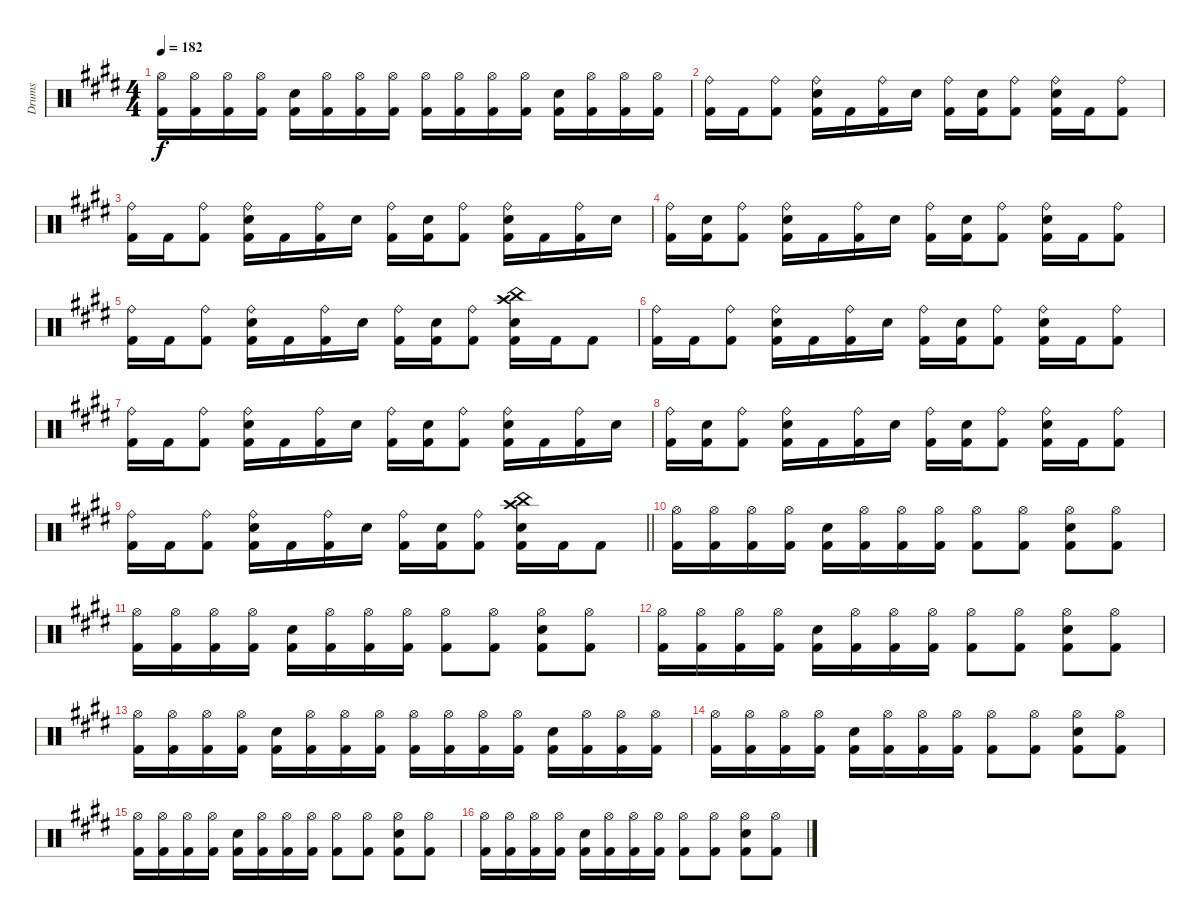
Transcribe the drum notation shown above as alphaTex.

\track ("Drums" "Drums") {instrument percussion}
\staff {score}
\articulation defaults
\ts (4 4)
\tempo 182
\clef neutral
\ks c#minor
("Hi-Hat (open)" "Kick (hit) 2").16{dy f} ("Hi-Hat (open)" "Kick (hit) 2").16 ("Hi-Hat (open)" "Kick (hit) 2").16 ("Hi-Hat (open)" "Kick (hit) 2").16 ("Snare (hit) 2" "Kick (hit) 2").16 ("Hi-Hat (open)" "Kick (hit) 2").16 ("Hi-Hat (open)" "Kick (hit) 2").16 ("Hi-Hat (open)" "Kick (hit) 2").16 ("Hi-Hat (open)" "Kick (hit) 2").16 ("Hi-Hat (open)" "Kick (hit) 2").16 ("Hi-Hat (open)" "Kick (hit) 2").16 ("Hi-Hat (open)" "Kick (hit) 2").16 ("Snare (hit) 2" "Kick (hit) 2").16 ("Hi-Hat (open)" "Kick (hit) 2").16 ("Hi-Hat (open)" "Kick (hit) 2").16 ("Hi-Hat (open)" "Kick (hit) 2").16 |
("Ride (bell)" "Kick (hit) 2").16 "Kick (hit) 2".16 ("Ride (bell)" "Kick (hit) 2").8 ("Ride (bell)" "Snare (hit) 2" "Kick (hit) 2").16 "Kick (hit) 2".16 ("Ride (bell)" "Kick (hit) 2").16 "Snare (hit) 2".16 ("Ride (bell)" "Kick (hit) 2").16 ("Snare (hit) 2" "Kick (hit) 2").16 ("Ride (bell)" "Kick (hit) 2").8 ("Ride (bell)" "Snare (hit) 2" "Kick (hit) 2").16 "Kick (hit) 2".16 ("Ride (bell)" "Kick (hit) 2").8 |
("Ride (bell)" "Kick (hit) 2").16 "Kick (hit) 2".16 ("Ride (bell)" "Kick (hit) 2").8 ("Ride (bell)" "Snare (hit) 2" "Kick (hit) 2").16 "Kick (hit) 2".16 ("Ride (bell)" "Kick (hit) 2").16 "Snare (hit) 2".16 ("Ride (bell)" "Kick (hit) 2").16 ("Snare (hit) 2" "Kick (hit) 2").16 ("Ride (bell)" "Kick (hit) 2").8 ("Ride (bell)" "Snare (hit) 2" "Kick (hit) 2").16 "Kick (hit) 2".16 ("Ride (bell)" "Kick (hit) 2").16 "Snare (hit) 2".16 |
("Ride (bell)" "Kick (hit) 2").16 ("Snare (hit) 2" "Kick (hit) 2").16 ("Ride (bell)" "Kick (hit) 2").8 ("Ride (bell)" "Snare (hit) 2" "Kick (hit) 2").16 "Kick (hit) 2".16 ("Ride (bell)" "Kick (hit) 2").16 "Snare (hit) 2".16 ("Ride (bell)" "Kick (hit) 2").16 ("Snare (hit) 2" "Kick (hit) 2").16 ("Ride (bell)" "Kick (hit) 2").8 ("Ride (bell)" "Snare (hit) 2" "Kick (hit) 2").16 "Kick (hit) 2".16 ("Ride (bell)" "Kick (hit) 2").8 |
("Ride (bell)" "Kick (hit) 2").16 "Kick (hit) 2".16 ("Ride (bell)" "Kick (hit) 2").8 ("Ride (bell)" "Snare (hit) 2" "Kick (hit) 2").16 "Kick (hit) 2".16 ("Ride (bell)" "Kick (hit) 2").16 "Snare (hit) 2".16 ("Ride (bell)" "Kick (hit) 2").16 ("Snare (hit) 2" "Kick (hit) 2").16 ("Ride (bell)" "Kick (hit) 2").8 ("Crash high (hit)" "China (hit)" "Snare (hit) 2" "Kick (hit) 2").16 "Kick (hit) 2".16 "Kick (hit) 2".8 |
("Ride (bell)" "Kick (hit) 2").16 "Kick (hit) 2".16 ("Ride (bell)" "Kick (hit) 2").8 ("Ride (bell)" "Snare (hit) 2" "Kick (hit) 2").16 "Kick (hit) 2".16 ("Ride (bell)" "Kick (hit) 2").16 "Snare (hit) 2".16 ("Ride (bell)" "Kick (hit) 2").16 ("Snare (hit) 2" "Kick (hit) 2").16 ("Ride (bell)" "Kick (hit) 2").8 ("Ride (bell)" "Snare (hit) 2" "Kick (hit) 2").16 "Kick (hit) 2".16 ("Ride (bell)" "Kick (hit) 2").8 |
("Ride (bell)" "Kick (hit) 2").16 "Kick (hit) 2".16 ("Ride (bell)" "Kick (hit) 2").8 ("Ride (bell)" "Snare (hit) 2" "Kick (hit) 2").16 "Kick (hit) 2".16 ("Ride (bell)" "Kick (hit) 2").16 "Snare (hit) 2".16 ("Ride (bell)" "Kick (hit) 2").16 ("Snare (hit) 2" "Kick (hit) 2").16 ("Ride (bell)" "Kick (hit) 2").8 ("Ride (bell)" "Snare (hit) 2" "Kick (hit) 2").16 "Kick (hit) 2".16 ("Ride (bell)" "Kick (hit) 2").16 "Snare (hit) 2".16 |
("Ride (bell)" "Kick (hit) 2").16 ("Snare (hit) 2" "Kick (hit) 2").16 ("Ride (bell)" "Kick (hit) 2").8 ("Ride (bell)" "Snare (hit) 2" "Kick (hit) 2").16 "Kick (hit) 2".16 ("Ride (bell)" "Kick (hit) 2").16 "Snare (hit) 2".16 ("Ride (bell)" "Kick (hit) 2").16 ("Snare (hit) 2" "Kick (hit) 2").16 ("Ride (bell)" "Kick (hit) 2").8 ("Ride (bell)" "Snare (hit) 2" "Kick (hit) 2").16 "Kick (hit) 2".16 ("Ride (bell)" "Kick (hit) 2").8 |
\barLineRight lightlight
("Ride (bell)" "Kick (hit) 2").16 "Kick (hit) 2".16 ("Ride (bell)" "Kick (hit) 2").8 ("Ride (bell)" "Snare (hit) 2" "Kick (hit) 2").16 "Kick (hit) 2".16 ("Ride (bell)" "Kick (hit) 2").16 "Snare (hit) 2".16 ("Ride (bell)" "Kick (hit) 2").16 ("Snare (hit) 2" "Kick (hit) 2").16 ("Ride (bell)" "Kick (hit) 2").8 ("Crash high (hit)" "China (hit)" "Snare (hit) 2" "Kick (hit) 2").16 "Kick (hit) 2".16 "Kick (hit) 2".8 |
("Hi-Hat (open)" "Kick (hit) 2").16 ("Hi-Hat (open)" "Kick (hit) 2").16 ("Hi-Hat (open)" "Kick (hit) 2").16 ("Hi-Hat (open)" "Kick (hit) 2").16 ("Snare (hit) 2" "Kick (hit) 2").16 ("Hi-Hat (open)" "Kick (hit) 2").16 ("Hi-Hat (open)" "Kick (hit) 2").16 ("Hi-Hat (open)" "Kick (hit) 2").16 ("Hi-Hat (open)" "Kick (hit) 2").8 ("Hi-Hat (open)" "Kick (hit) 2").8 ("Hi-Hat (open)" "Snare (hit) 2" "Kick (hit) 2").8 ("Hi-Hat (open)" "Kick (hit) 2").8 |
("Hi-Hat (open)" "Kick (hit) 2").16 ("Hi-Hat (open)" "Kick (hit) 2").16 ("Hi-Hat (open)" "Kick (hit) 2").16 ("Hi-Hat (open)" "Kick (hit) 2").16 ("Snare (hit) 2" "Kick (hit) 2").16 ("Hi-Hat (open)" "Kick (hit) 2").16 ("Hi-Hat (open)" "Kick (hit) 2").16 ("Hi-Hat (open)" "Kick (hit) 2").16 ("Hi-Hat (open)" "Kick (hit) 2").8 ("Hi-Hat (open)" "Kick (hit) 2").8 ("Hi-Hat (open)" "Snare (hit) 2" "Kick (hit) 2").8 ("Hi-Hat (open)" "Kick (hit) 2").8 |
("Hi-Hat (open)" "Kick (hit) 2").16 ("Hi-Hat (open)" "Kick (hit) 2").16 ("Hi-Hat (open)" "Kick (hit) 2").16 ("Hi-Hat (open)" "Kick (hit) 2").16 ("Snare (hit) 2" "Kick (hit) 2").16 ("Hi-Hat (open)" "Kick (hit) 2").16 ("Hi-Hat (open)" "Kick (hit) 2").16 ("Hi-Hat (open)" "Kick (hit) 2").16 ("Hi-Hat (open)" "Kick (hit) 2").8 ("Hi-Hat (open)" "Kick (hit) 2").8 ("Hi-Hat (open)" "Snare (hit) 2" "Kick (hit) 2").8 ("Hi-Hat (open)" "Kick (hit) 2").8 |
("Hi-Hat (open)" "Kick (hit) 2").16 ("Hi-Hat (open)" "Kick (hit) 2").16 ("Hi-Hat (open)" "Kick (hit) 2").16 ("Hi-Hat (open)" "Kick (hit) 2").16 ("Snare (hit) 2" "Kick (hit) 2").16 ("Hi-Hat (open)" "Kick (hit) 2").16 ("Hi-Hat (open)" "Kick (hit) 2").16 ("Hi-Hat (open)" "Kick (hit) 2").16 ("Hi-Hat (open)" "Kick (hit) 2").16 ("Hi-Hat (open)" "Kick (hit) 2").16 ("Hi-Hat (open)" "Kick (hit) 2").16 ("Hi-Hat (open)" "Kick (hit) 2").16 ("Snare (hit) 2" "Kick (hit) 2").16 ("Hi-Hat (open)" "Kick (hit) 2").16 ("Hi-Hat (open)" "Kick (hit) 2").16 ("Hi-Hat (open)" "Kick (hit) 2").16 |
("Hi-Hat (open)" "Kick (hit) 2").16 ("Hi-Hat (open)" "Kick (hit) 2").16 ("Hi-Hat (open)" "Kick (hit) 2").16 ("Hi-Hat (open)" "Kick (hit) 2").16 ("Snare (hit) 2" "Kick (hit) 2").16 ("Hi-Hat (open)" "Kick (hit) 2").16 ("Hi-Hat (open)" "Kick (hit) 2").16 ("Hi-Hat (open)" "Kick (hit) 2").16 ("Hi-Hat (open)" "Kick (hit) 2").8 ("Hi-Hat (open)" "Kick (hit) 2").8 ("Hi-Hat (open)" "Snare (hit) 2" "Kick (hit) 2").8 ("Hi-Hat (open)" "Kick (hit) 2").8 |
("Hi-Hat (open)" "Kick (hit) 2").16 ("Hi-Hat (open)" "Kick (hit) 2").16 ("Hi-Hat (open)" "Kick (hit) 2").16 ("Hi-Hat (open)" "Kick (hit) 2").16 ("Snare (hit) 2" "Kick (hit) 2").16 ("Hi-Hat (open)" "Kick (hit) 2").16 ("Hi-Hat (open)" "Kick (hit) 2").16 ("Hi-Hat (open)" "Kick (hit) 2").16 ("Hi-Hat (open)" "Kick (hit) 2").8 ("Hi-Hat (open)" "Kick (hit) 2").8 ("Hi-Hat (open)" "Snare (hit) 2" "Kick (hit) 2").8 ("Hi-Hat (open)" "Kick (hit) 2").8 |
("Hi-Hat (open)" "Kick (hit) 2").16 ("Hi-Hat (open)" "Kick (hit) 2").16 ("Hi-Hat (open)" "Kick (hit) 2").16 ("Hi-Hat (open)" "Kick (hit) 2").16 ("Snare (hit) 2" "Kick (hit) 2").16 ("Hi-Hat (open)" "Kick (hit) 2").16 ("Hi-Hat (open)" "Kick (hit) 2").16 ("Hi-Hat (open)" "Kick (hit) 2").16 ("Hi-Hat (open)" "Kick (hit) 2").8 ("Hi-Hat (open)" "Kick (hit) 2").8 ("Hi-Hat (open)" "Snare (hit) 2" "Kick (hit) 2").8 ("Hi-Hat (open)" "Kick (hit) 2").8
